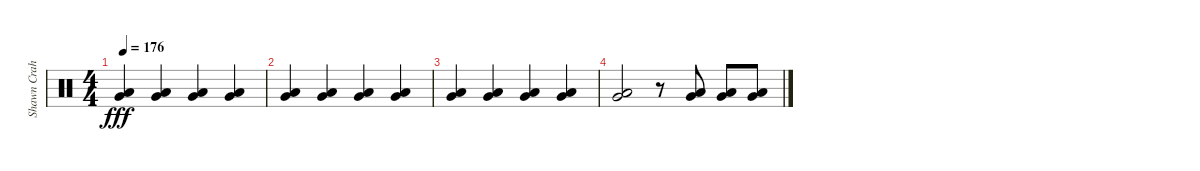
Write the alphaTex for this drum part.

\track ("Shawn Crahan" "Shawn Crah") {instrument percussion}
\staff {score}
\articulation defaults
\ts (4 4)
\tempo 176
\clef neutral
\ks c
("Very Low Tom (hit)" "Low Floor Tom (hit)").4{dy fff} ("Very Low Tom (hit)" "Low Floor Tom (hit)").4 ("Very Low Tom (hit)" "Low Floor Tom (hit)").4 ("Very Low Tom (hit)" "Low Floor Tom (hit)").4 |
("Very Low Tom (hit)" "Low Floor Tom (hit)").4 ("Very Low Tom (hit)" "Low Floor Tom (hit)").4 ("Very Low Tom (hit)" "Low Floor Tom (hit)").4 ("Very Low Tom (hit)" "Low Floor Tom (hit)").4 |
("Very Low Tom (hit)" "Low Floor Tom (hit)").4 ("Very Low Tom (hit)" "Low Floor Tom (hit)").4 ("Very Low Tom (hit)" "Low Floor Tom (hit)").4 ("Very Low Tom (hit)" "Low Floor Tom (hit)").4 |
("Very Low Tom (hit)" "Low Floor Tom (hit)").2 r.8 ("Very Low Tom (hit)" "Low Floor Tom (hit)").8 ("Very Low Tom (hit)" "Low Floor Tom (hit)").8 ("Very Low Tom (hit)" "Low Floor Tom (hit)").8
